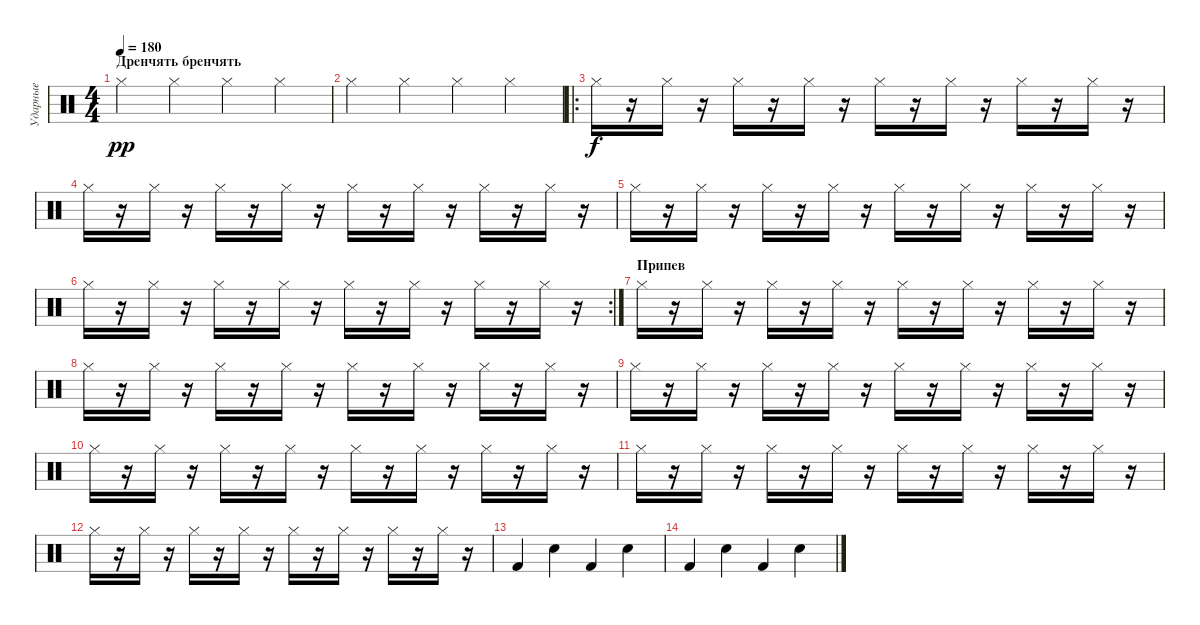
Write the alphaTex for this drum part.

\track ("Ударные" "Ударные") {instrument percussion}
\staff {score}
\articulation defaults
\ts (4 4)
\section ("" "Дренчять бренчять")
\tempo 180
\clef neutral
\ks c "Hi-Hat (closed)".4{dy pp} "Hi-Hat (closed)".4 "Hi-Hat (closed)".4 "Hi-Hat (closed)".4
|
"Hi-Hat (closed)".4 "Hi-Hat (closed)".4 "Hi-Hat (closed)".4 "Hi-Hat (closed)".4 |
\ro "Hi-Hat (closed)".16{dy f}
r.16 "Hi-Hat (closed)".16 r.16 "Hi-Hat (closed)".16 r.16 "Hi-Hat (closed)".16 r.16 "Hi-Hat (closed)".16 r.16 "Hi-Hat (closed)".16 r.16 "Hi-Hat (closed)".16 r.16 "Hi-Hat (closed)".16 r.16 |
"Hi-Hat (closed)".16 r.16 "Hi-Hat (closed)".16 r.16 "Hi-Hat (closed)".16 r.16 "Hi-Hat (closed)".16 r.16 "Hi-Hat (closed)".16 r.16 "Hi-Hat (closed)".16 r.16 "Hi-Hat (closed)".16 r.16 "Hi-Hat (closed)".16 r.16 |
"Hi-Hat (closed)".16 r.16 "Hi-Hat (closed)".16 r.16 "Hi-Hat (closed)".16 r.16 "Hi-Hat (closed)".16 r.16 "Hi-Hat (closed)".16 r.16 "Hi-Hat (closed)".16 r.16 "Hi-Hat (closed)".16 r.16 "Hi-Hat (closed)".16 r.16 |
\rc 2 "Hi-Hat (closed)".16
r.16 "Hi-Hat (closed)".16 r.16 "Hi-Hat (closed)".16 r.16 "Hi-Hat (closed)".16 r.16 "Hi-Hat (closed)".16 r.16 "Hi-Hat (closed)".16 r.16 "Hi-Hat (closed)".16 r.16 "Hi-Hat (closed)".16 r.16 |
\section ("" "Припев")
"Hi-Hat (closed)".16 r.16 "Hi-Hat (closed)".16 r.16 "Hi-Hat (closed)".16 r.16 "Hi-Hat (closed)".16 r.16 "Hi-Hat (closed)".16 r.16 "Hi-Hat (closed)".16 r.16 "Hi-Hat (closed)".16 r.16 "Hi-Hat (closed)".16 r.16 |
"Hi-Hat (closed)".16 r.16 "Hi-Hat (closed)".16 r.16 "Hi-Hat (closed)".16 r.16 "Hi-Hat (closed)".16 r.16 "Hi-Hat (closed)".16 r.16 "Hi-Hat (closed)".16 r.16 "Hi-Hat (closed)".16 r.16 "Hi-Hat (closed)".16 r.16 |
"Hi-Hat (closed)".16 r.16 "Hi-Hat (closed)".16 r.16 "Hi-Hat (closed)".16 r.16 "Hi-Hat (closed)".16 r.16 "Hi-Hat (closed)".16 r.16 "Hi-Hat (closed)".16 r.16 "Hi-Hat (closed)".16 r.16 "Hi-Hat (closed)".16 r.16 |
"Hi-Hat (closed)".16 r.16 "Hi-Hat (closed)".16 r.16 "Hi-Hat (closed)".16 r.16 "Hi-Hat (closed)".16 r.16 "Hi-Hat (closed)".16 r.16 "Hi-Hat (closed)".16 r.16 "Hi-Hat (closed)".16 r.16 "Hi-Hat (closed)".16 r.16 |
"Hi-Hat (closed)".16 r.16 "Hi-Hat (closed)".16 r.16 "Hi-Hat (closed)".16 r.16 "Hi-Hat (closed)".16 r.16 "Hi-Hat (closed)".16 r.16 "Hi-Hat (closed)".16 r.16 "Hi-Hat (closed)".16 r.16 "Hi-Hat (closed)".16 r.16 |
"Hi-Hat (closed)".16 r.16 "Hi-Hat (closed)".16 r.16 "Hi-Hat (closed)".16 r.16 "Hi-Hat (closed)".16 r.16 "Hi-Hat (closed)".16 r.16 "Hi-Hat (closed)".16 r.16 "Hi-Hat (closed)".16 r.16 "Hi-Hat (closed)".16 r.16 |
"Kick (hit) 2".4 "Snare (hit) 2".4 "Kick (hit) 2".4 "Snare (hit) 2".4 |
"Kick (hit) 2".4 "Snare (hit) 2".4 "Kick (hit) 2".4 "Snare (hit) 2".4
